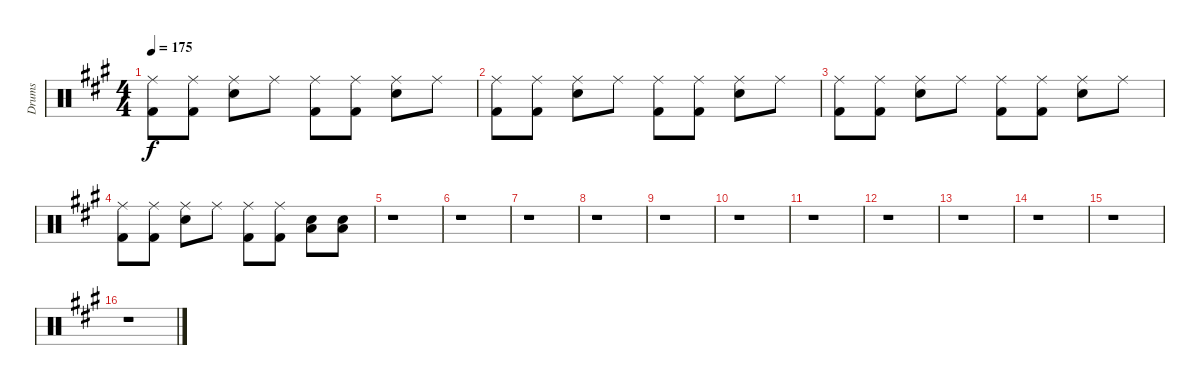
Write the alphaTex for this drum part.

\track ("Drums" "Drums") {instrument percussion}
\staff {score}
\articulation defaults
\ts (4 4)
\tempo 175
\clef neutral
\ks f#minor
("Ride (middle)" "Kick (hit) 2").8{dy f} ("Ride (middle)" "Kick (hit) 2").8 ("Ride (middle)" "Snare (hit) 2").8 "Ride (middle)".8 ("Ride (middle)" "Kick (hit) 2").8 ("Ride (middle)" "Kick (hit) 2").8 ("Ride (middle)" "Snare (hit) 2").8 "Ride (middle)".8 |
("Ride (middle)" "Kick (hit) 2").8 ("Ride (middle)" "Kick (hit) 2").8 ("Ride (middle)" "Snare (hit) 2").8 "Ride (middle)".8 ("Ride (middle)" "Kick (hit) 2").8 ("Ride (middle)" "Kick (hit) 2").8 ("Ride (middle)" "Snare (hit) 2").8 "Ride (middle)".8 |
("Ride (middle)" "Kick (hit) 2").8 ("Ride (middle)" "Kick (hit) 2").8 ("Ride (middle)" "Snare (hit) 2").8 "Ride (middle)".8 ("Ride (middle)" "Kick (hit) 2").8 ("Ride (middle)" "Kick (hit) 2").8 ("Ride (middle)" "Snare (hit) 2").8 "Ride (middle)".8 |
("Ride (middle)" "Kick (hit) 2").8 ("Ride (middle)" "Kick (hit) 2").8 ("Ride (middle)" "Snare (hit) 2").8 "Ride (middle)".8 ("Ride (middle)" "Kick (hit) 2").8 ("Ride (middle)" "Kick (hit) 2").8 ("Snare (hit) 2" "Low Tom (hit)").8 ("Snare (hit) 2" "Low Tom (hit)").8 |
r.1 |
r.1 |
r.1 |
r.1 |
r.1 |
r.1 |
r.1 |
r.1 |
r.1 |
r.1 |
r.1 |
r.1
